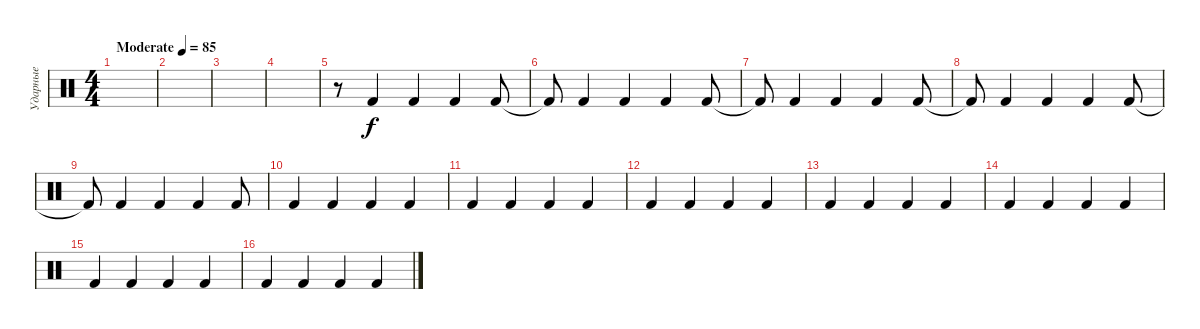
\track ("Ударные" "Ударные") {instrument percussion}
\staff {score}
\articulation defaults
\ts (4 4)
\tempo (85 "Moderate")
\clef neutral
\ks c
|
|
|
|
r.8 "Kick (hit) 2".4 "Kick (hit) 2".4 "Kick (hit) 2".4 "Kick (hit) 2".8 |
"Kick (hit) 2"{t}.8 "Kick (hit) 2".4 "Kick (hit) 2".4 "Kick (hit) 2".4 "Kick (hit) 2".8 |
"Kick (hit) 2"{t}.8 "Kick (hit) 2".4 "Kick (hit) 2".4 "Kick (hit) 2".4 "Kick (hit) 2".8 |
"Kick (hit) 2"{t}.8 "Kick (hit) 2".4 "Kick (hit) 2".4 "Kick (hit) 2".4 "Kick (hit) 2".8 |
"Kick (hit) 2"{t}.8 "Kick (hit) 2".4 "Kick (hit) 2".4 "Kick (hit) 2".4 "Kick (hit) 2".8 |
"Kick (hit) 2".4 "Kick (hit) 2".4 "Kick (hit) 2".4 "Kick (hit) 2".4 |
"Kick (hit) 2".4 "Kick (hit) 2".4 "Kick (hit) 2".4 "Kick (hit) 2".4 |
"Kick (hit) 2".4 "Kick (hit) 2".4 "Kick (hit) 2".4 "Kick (hit) 2".4 |
"Kick (hit) 2".4 "Kick (hit) 2".4 "Kick (hit) 2".4 "Kick (hit) 2".4 |
"Kick (hit) 2".4 "Kick (hit) 2".4 "Kick (hit) 2".4 "Kick (hit) 2".4 |
"Kick (hit) 2".4 "Kick (hit) 2".4 "Kick (hit) 2".4 "Kick (hit) 2".4 |
"Kick (hit) 2".4 "Kick (hit) 2".4 "Kick (hit) 2".4 "Kick (hit) 2".4
